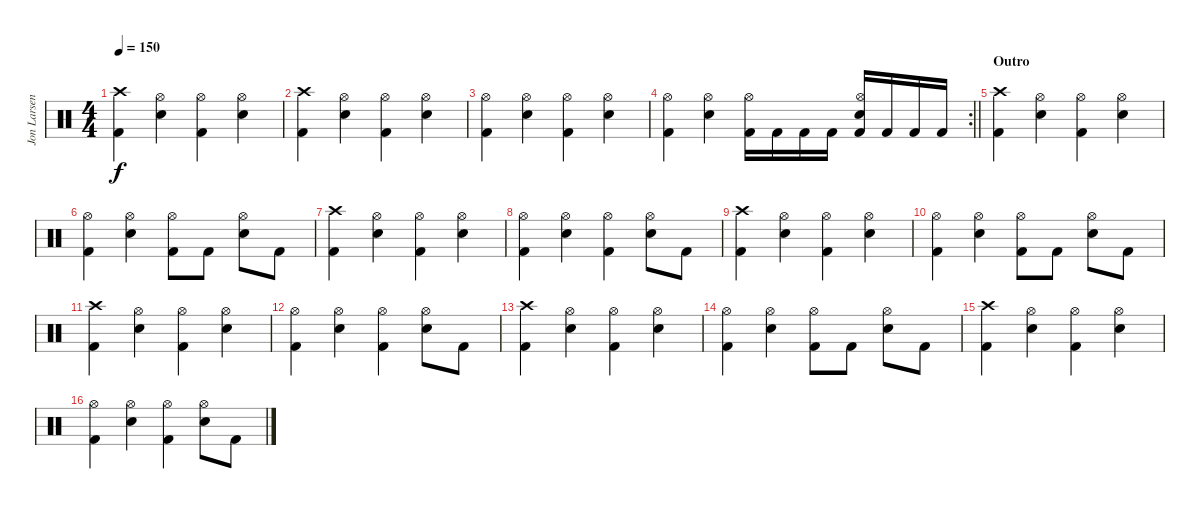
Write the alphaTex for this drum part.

\track ("Jon Larsen" "Jon Larsen") {instrument percussion}
\staff {score}
\articulation defaults
\ts (4 4)
\tempo 150
\clef neutral
\ks c
("Crash high (hit)" "Kick (hit) 2").4{dy f} ("Hi-Hat (open)" "Electric Snare (hit)").4 ("Hi-Hat (open)" "Kick (hit) 2").4 ("Hi-Hat (open)" "Electric Snare (hit)").4 |
("Crash high (hit)" "Kick (hit) 2").4 ("Hi-Hat (open)" "Electric Snare (hit)").4 ("Hi-Hat (open)" "Kick (hit) 2").4 ("Hi-Hat (open)" "Electric Snare (hit)").4 |
("Hi-Hat (open)" "Kick (hit) 2").4 ("Hi-Hat (open)" "Electric Snare (hit)").4 ("Hi-Hat (open)" "Kick (hit) 2").4 ("Hi-Hat (open)" "Electric Snare (hit)").4 |
\rc 2
\barLineRight lightlight
("Hi-Hat (open)" "Kick (hit) 2").4 ("Hi-Hat (open)" "Electric Snare (hit)").4 ("Hi-Hat (open)" "Kick (hit) 2").16 "Kick (hit) 2".16 "Kick (hit) 2".16 "Kick (hit) 2".16 ("Hi-Hat (open)" "Electric Snare (hit)" "Kick (hit) 2").16 "Kick (hit) 2".16 "Kick (hit) 2".16 "Kick (hit) 2".16 |
\section ("" "Outro")
("Crash high (hit)" "Kick (hit) 2").4 ("Hi-Hat (open)" "Electric Snare (hit)").4 ("Hi-Hat (open)" "Kick (hit) 2").4 ("Hi-Hat (open)" "Electric Snare (hit)").4 |
("Hi-Hat (open)" "Kick (hit) 2").4 ("Hi-Hat (open)" "Electric Snare (hit)").4 ("Hi-Hat (open)" "Kick (hit) 2").8 "Kick (hit) 2".8 ("Hi-Hat (open)" "Electric Snare (hit)").8 "Kick (hit) 2".8 |
("Crash high (hit)" "Kick (hit) 2").4 ("Hi-Hat (open)" "Electric Snare (hit)").4 ("Hi-Hat (open)" "Kick (hit) 2").4 ("Hi-Hat (open)" "Electric Snare (hit)").4 |
("Hi-Hat (open)" "Kick (hit) 2").4 ("Hi-Hat (open)" "Electric Snare (hit)").4 ("Hi-Hat (open)" "Kick (hit) 2").4 ("Hi-Hat (open)" "Electric Snare (hit)").8 "Kick (hit) 2".8 |
("Crash high (hit)" "Kick (hit) 2").4 ("Hi-Hat (open)" "Electric Snare (hit)").4 ("Hi-Hat (open)" "Kick (hit) 2").4 ("Hi-Hat (open)" "Electric Snare (hit)").4 |
("Hi-Hat (open)" "Kick (hit) 2").4 ("Hi-Hat (open)" "Electric Snare (hit)").4 ("Hi-Hat (open)" "Kick (hit) 2").8 "Kick (hit) 2".8 ("Hi-Hat (open)" "Electric Snare (hit)").8 "Kick (hit) 2".8 |
("Crash high (hit)" "Kick (hit) 2").4 ("Hi-Hat (open)" "Electric Snare (hit)").4 ("Hi-Hat (open)" "Kick (hit) 2").4 ("Hi-Hat (open)" "Electric Snare (hit)").4 |
("Hi-Hat (open)" "Kick (hit) 2").4 ("Hi-Hat (open)" "Electric Snare (hit)").4 ("Hi-Hat (open)" "Kick (hit) 2").4 ("Hi-Hat (open)" "Electric Snare (hit)").8 "Kick (hit) 2".8 |
("Crash high (hit)" "Kick (hit) 2").4 ("Hi-Hat (open)" "Electric Snare (hit)").4 ("Hi-Hat (open)" "Kick (hit) 2").4 ("Hi-Hat (open)" "Electric Snare (hit)").4 |
("Hi-Hat (open)" "Kick (hit) 2").4 ("Hi-Hat (open)" "Electric Snare (hit)").4 ("Hi-Hat (open)" "Kick (hit) 2").8 "Kick (hit) 2".8 ("Hi-Hat (open)" "Electric Snare (hit)").8 "Kick (hit) 2".8 |
("Crash high (hit)" "Kick (hit) 2").4 ("Hi-Hat (open)" "Electric Snare (hit)").4 ("Hi-Hat (open)" "Kick (hit) 2").4 ("Hi-Hat (open)" "Electric Snare (hit)").4 |
("Hi-Hat (open)" "Kick (hit) 2").4 ("Hi-Hat (open)" "Electric Snare (hit)").4 ("Hi-Hat (open)" "Kick (hit) 2").4 ("Hi-Hat (open)" "Electric Snare (hit)").8 "Kick (hit) 2".8
